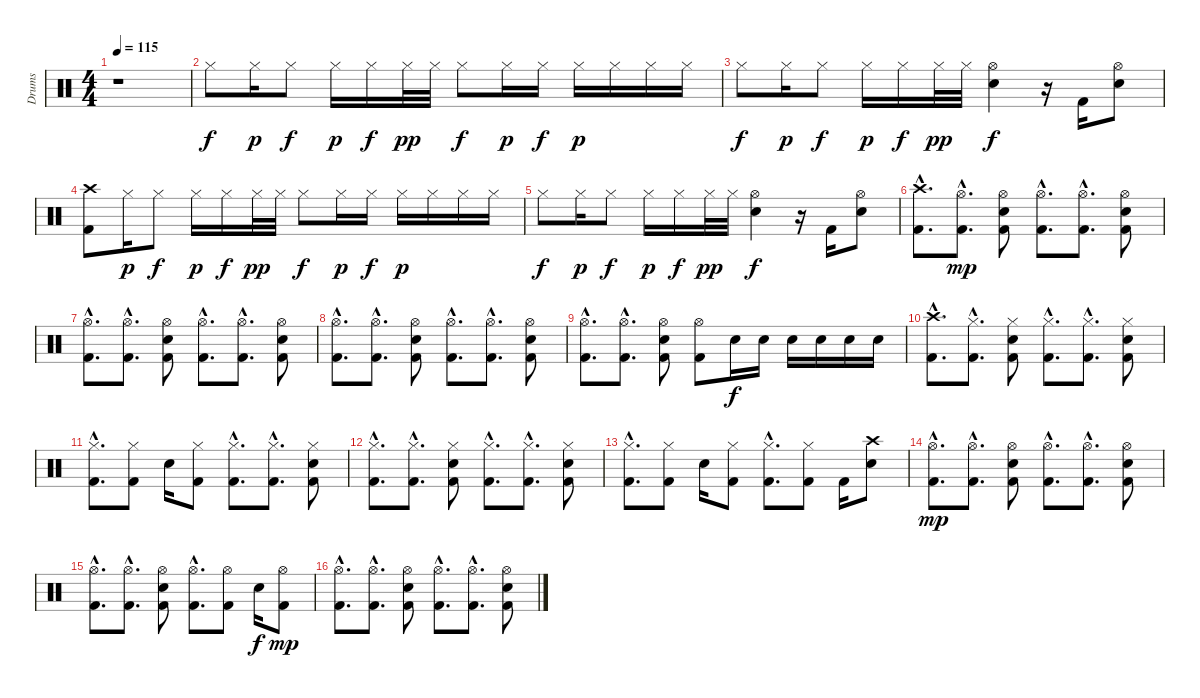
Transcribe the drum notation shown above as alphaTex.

\track ("Drums" "Drums") {instrument percussion}
\staff {score}
\articulation defaults
\ts (4 4)
\tempo 115
\clef neutral
\ks c
r.1{dy f} |
"Hi-Hat (closed)".8 "Hi-Hat (closed)".16{dy p} "Hi-Hat (closed)".8{dy f} "Hi-Hat (closed)".16{dy p} "Hi-Hat (closed)".16{dy f} "Hi-Hat (closed)".32{dy pp} "Hi-Hat (closed)".32 "Hi-Hat (closed)".8{dy f} "Hi-Hat (closed)".16{dy p} "Hi-Hat (closed)".16{dy f} "Hi-Hat (closed)".16{dy p} "Hi-Hat (closed)".16 "Hi-Hat (closed)".16 "Hi-Hat (closed)".16 |
"Hi-Hat (closed)".8{dy f} "Hi-Hat (closed)".16{dy p} "Hi-Hat (closed)".8{dy f} "Hi-Hat (closed)".16{dy p} "Hi-Hat (closed)".16{dy f} "Hi-Hat (closed)".32{dy pp} "Hi-Hat (closed)".32 ("Hi-Hat (open)" "Electric Snare (hit)").4{dy f} r.16 "Kick (hit) 2".16 ("Hi-Hat (open)" "Electric Snare (hit)").8 |
("Crash high (hit)" "Kick (hit) 2").8 "Hi-Hat (closed)".16{dy p} "Hi-Hat (closed)".8{dy f} "Hi-Hat (closed)".16{dy p} "Hi-Hat (closed)".16{dy f} "Hi-Hat (closed)".32{dy pp} "Hi-Hat (closed)".32 "Hi-Hat (closed)".8{dy f} "Hi-Hat (closed)".16{dy p} "Hi-Hat (closed)".16{dy f} "Hi-Hat (closed)".16{dy p} "Hi-Hat (closed)".16 "Hi-Hat (closed)".16 "Hi-Hat (closed)".16 |
"Hi-Hat (closed)".8{dy f} "Hi-Hat (closed)".16{dy p} "Hi-Hat (closed)".8{dy f} "Hi-Hat (closed)".16{dy p} "Hi-Hat (closed)".16{dy f} "Hi-Hat (closed)".32{dy pp} "Hi-Hat (closed)".32 ("Hi-Hat (open)" "Electric Snare (hit)").4{dy f} r.16 "Kick (hit) 2".16 ("Hi-Hat (open)" "Electric Snare (hit)").8 |
("Crash high (hit)"{hac} "Kick (hit) 2"{hac}).8{d} ("Hi-Hat (open)"{hac} "Kick (hit) 2"{hac}).8{d dy mp} ("Hi-Hat (open)" "Electric Snare (hit)" "Kick (hit) 2").8 ("Hi-Hat (open)"{hac} "Kick (hit) 2"{hac}).8{d} ("Hi-Hat (open)"{hac} "Kick (hit) 2"{hac}).8{d} ("Hi-Hat (open)" "Electric Snare (hit)" "Kick (hit) 2").8 |
("Hi-Hat (open)"{hac} "Kick (hit) 2"{hac}).8{d} ("Hi-Hat (open)"{hac} "Kick (hit) 2"{hac}).8{d} ("Hi-Hat (open)" "Electric Snare (hit)" "Kick (hit) 2").8 ("Hi-Hat (open)"{hac} "Kick (hit) 2"{hac}).8{d} ("Hi-Hat (open)"{hac} "Kick (hit) 2"{hac}).8{d} ("Hi-Hat (open)" "Electric Snare (hit)" "Kick (hit) 2").8 |
("Hi-Hat (open)"{hac} "Kick (hit) 2"{hac}).8{d} ("Hi-Hat (open)"{hac} "Kick (hit) 2"{hac}).8{d} ("Hi-Hat (open)" "Electric Snare (hit)" "Kick (hit) 2").8 ("Hi-Hat (open)"{hac} "Kick (hit) 2"{hac}).8{d} ("Hi-Hat (open)"{hac} "Kick (hit) 2"{hac}).8{d} ("Hi-Hat (open)" "Electric Snare (hit)" "Kick (hit) 2").8 |
("Hi-Hat (open)"{hac} "Kick (hit) 2"{hac}).8{d} ("Hi-Hat (open)"{hac} "Kick (hit) 2"{hac}).8{d} ("Hi-Hat (open)" "Electric Snare (hit)" "Kick (hit) 2").8 ("Hi-Hat (open)" "Kick (hit) 2").8 "Electric Snare (hit)".16{dy f} "Electric Snare (hit)".16 "Electric Snare (hit)".16 "Electric Snare (hit)".16 "Electric Snare (hit)".16 "Electric Snare (hit)".16 |
("Crash high (hit)"{hac} "Kick (hit) 2"{hac}).8{d} ("Hi-Hat (closed)"{hac} "Kick (hit) 2"{hac}).8{d} ("Hi-Hat (closed)" "Electric Snare (hit)" "Kick (hit) 2").8 ("Hi-Hat (closed)"{hac} "Kick (hit) 2"{hac}).8{d} ("Hi-Hat (closed)"{hac} "Kick (hit) 2"{hac}).8{d} ("Hi-Hat (closed)" "Electric Snare (hit)" "Kick (hit) 2").8 |
("Hi-Hat (closed)"{hac} "Kick (hit) 2"{hac}).8{d} ("Hi-Hat (closed)" "Kick (hit) 2").8 "Electric Snare (hit)".16 ("Hi-Hat (closed)" "Kick (hit) 2").8 ("Hi-Hat (closed)"{hac} "Kick (hit) 2"{hac}).8{d} ("Hi-Hat (closed)"{hac} "Kick (hit) 2"{hac}).8{d} ("Hi-Hat (closed)" "Electric Snare (hit)" "Kick (hit) 2").8 |
("Hi-Hat (closed)"{hac} "Kick (hit) 2"{hac}).8{d} ("Hi-Hat (closed)"{hac} "Kick (hit) 2"{hac}).8{d} ("Hi-Hat (closed)" "Electric Snare (hit)" "Kick (hit) 2").8 ("Hi-Hat (closed)"{hac} "Kick (hit) 2"{hac}).8{d} ("Hi-Hat (closed)"{hac} "Kick (hit) 2"{hac}).8{d} ("Hi-Hat (closed)" "Electric Snare (hit)" "Kick (hit) 2").8 |
("Hi-Hat (closed)"{hac} "Kick (hit) 2"{hac}).8{d} ("Hi-Hat (closed)" "Kick (hit) 2").8 "Electric Snare (hit)".16 ("Hi-Hat (closed)" "Kick (hit) 2").8 ("Hi-Hat (closed)"{hac} "Kick (hit) 2"{hac}).8{d} ("Hi-Hat (closed)" "Kick (hit) 2").8 "Kick (hit) 2".16 ("Crash high (hit)" "Electric Snare (hit)").8 |
("Hi-Hat (open)"{hac} "Kick (hit) 2"{hac}).8{d dy mp} ("Hi-Hat (open)"{hac} "Kick (hit) 2"{hac}).8{d} ("Hi-Hat (open)" "Electric Snare (hit)" "Kick (hit) 2").8 ("Hi-Hat (open)"{hac} "Kick (hit) 2"{hac}).8{d} ("Hi-Hat (open)"{hac} "Kick (hit) 2"{hac}).8{d} ("Hi-Hat (open)" "Electric Snare (hit)" "Kick (hit) 2").8 |
("Hi-Hat (open)"{hac} "Kick (hit) 2"{hac}).8{d} ("Hi-Hat (open)"{hac} "Kick (hit) 2"{hac}).8{d} ("Hi-Hat (open)" "Electric Snare (hit)" "Kick (hit) 2").8 ("Hi-Hat (open)"{hac} "Kick (hit) 2"{hac}).8{d} ("Hi-Hat (open)" "Kick (hit) 2").8 "Electric Snare (hit)".16{dy f} ("Hi-Hat (open)" "Kick (hit) 2").8{dy mp} |
("Hi-Hat (open)"{hac} "Kick (hit) 2"{hac}).8{d} ("Hi-Hat (open)"{hac} "Kick (hit) 2"{hac}).8{d} ("Hi-Hat (open)" "Electric Snare (hit)" "Kick (hit) 2").8 ("Hi-Hat (open)"{hac} "Kick (hit) 2"{hac}).8{d} ("Hi-Hat (open)"{hac} "Kick (hit) 2"{hac}).8{d} ("Hi-Hat (open)" "Electric Snare (hit)" "Kick (hit) 2").8
